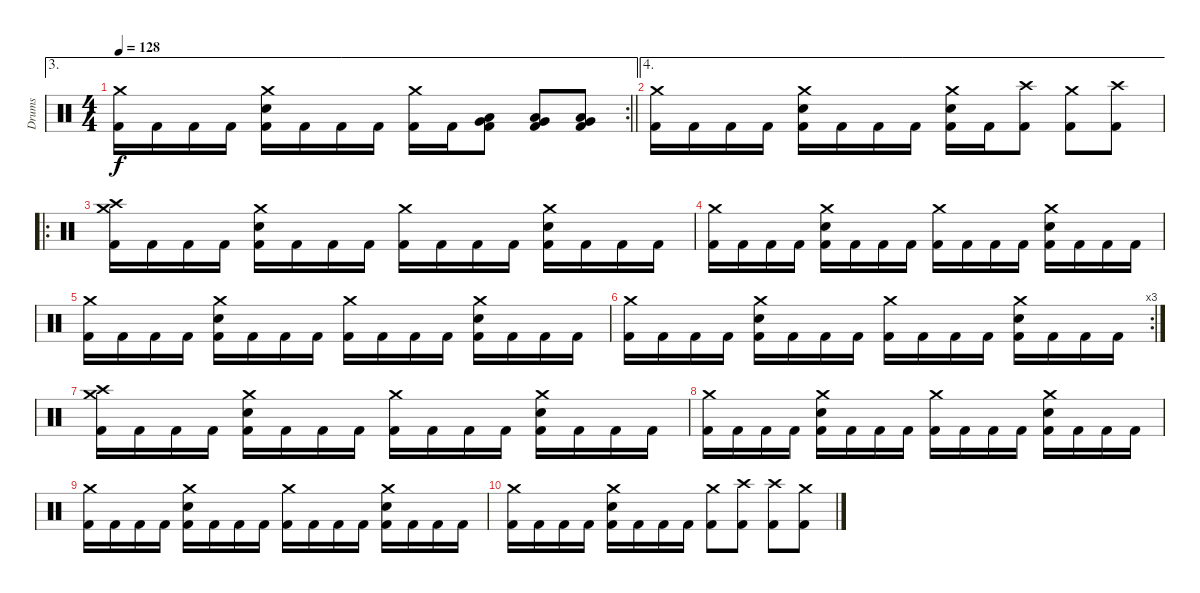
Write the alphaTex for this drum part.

\track ("Drums" "Drums") {instrument percussion}
\staff {score}
\articulation defaults
\ae 3
\rc 2
\ts (4 4)
\tempo 128
\clef neutral
\barLineRight lightlight
\ks c
("Crash medium (hit)" "Kick (hit) 2").16{dy f} "Kick (hit) 2".16 "Kick (hit) 2".16 "Kick (hit) 2".16 ("Crash medium (hit)" "Electric Snare (hit)" "Kick (hit) 2").16 "Kick (hit) 2".16 "Kick (hit) 2".16 "Kick (hit) 2".16 ("Crash medium (hit)" "Kick (hit) 2").16 "Kick (hit) 2".16 ("Low Floor Tom (hit)" "Very Low Tom (hit)" "Kick (hit) 2").8 ("Low Floor Tom (hit)" "Very Low Tom (hit)" "Kick (hit) 2").8 ("Low Floor Tom (hit)" "Very Low Tom (hit)" "Kick (hit) 2").8 |
\ae 4
("Crash medium (hit)" "Kick (hit) 2").16 "Kick (hit) 2".16 "Kick (hit) 2".16 "Kick (hit) 2".16 ("Crash medium (hit)" "Electric Snare (hit)" "Kick (hit) 2").16 "Kick (hit) 2".16 "Kick (hit) 2".16 "Kick (hit) 2".16 ("Crash medium (hit)" "Electric Snare (hit)" "Kick (hit) 2").16 "Kick (hit) 2".16 ("Crash high (hit)" "Kick (hit) 2").8 ("Crash medium (hit)" "Kick (hit) 2").8 ("Crash high (hit)" "Kick (hit) 2").8 |
\ro
("Crash medium (hit)" "Crash high (hit)" "Kick (hit) 2").16 "Kick (hit) 2".16 "Kick (hit) 2".16 "Kick (hit) 2".16 ("Crash medium (hit)" "Electric Snare (hit)" "Kick (hit) 2").16 "Kick (hit) 2".16 "Kick (hit) 2".16 "Kick (hit) 2".16 ("Crash medium (hit)" "Kick (hit) 2").16 "Kick (hit) 2".16 "Kick (hit) 2".16 "Kick (hit) 2".16 ("Crash medium (hit)" "Electric Snare (hit)" "Kick (hit) 2").16 "Kick (hit) 2".16 "Kick (hit) 2".16 "Kick (hit) 2".16 |
("Crash medium (hit)" "Kick (hit) 2").16 "Kick (hit) 2".16 "Kick (hit) 2".16 "Kick (hit) 2".16 ("Crash medium (hit)" "Electric Snare (hit)" "Kick (hit) 2").16 "Kick (hit) 2".16 "Kick (hit) 2".16 "Kick (hit) 2".16 ("Crash medium (hit)" "Kick (hit) 2").16 "Kick (hit) 2".16 "Kick (hit) 2".16 "Kick (hit) 2".16 ("Crash medium (hit)" "Electric Snare (hit)" "Kick (hit) 2").16 "Kick (hit) 2".16 "Kick (hit) 2".16 "Kick (hit) 2".16 |
("Crash medium (hit)" "Kick (hit) 2").16 "Kick (hit) 2".16 "Kick (hit) 2".16 "Kick (hit) 2".16 ("Crash medium (hit)" "Electric Snare (hit)" "Kick (hit) 2").16 "Kick (hit) 2".16 "Kick (hit) 2".16 "Kick (hit) 2".16 ("Crash medium (hit)" "Kick (hit) 2").16 "Kick (hit) 2".16 "Kick (hit) 2".16 "Kick (hit) 2".16 ("Crash medium (hit)" "Electric Snare (hit)" "Kick (hit) 2").16 "Kick (hit) 2".16 "Kick (hit) 2".16 "Kick (hit) 2".16 |
\rc 3
("Crash medium (hit)" "Kick (hit) 2").16 "Kick (hit) 2".16 "Kick (hit) 2".16 "Kick (hit) 2".16 ("Crash medium (hit)" "Electric Snare (hit)" "Kick (hit) 2").16 "Kick (hit) 2".16 "Kick (hit) 2".16 "Kick (hit) 2".16 ("Crash medium (hit)" "Kick (hit) 2").16 "Kick (hit) 2".16 "Kick (hit) 2".16 "Kick (hit) 2".16 ("Crash medium (hit)" "Electric Snare (hit)" "Kick (hit) 2").16 "Kick (hit) 2".16 "Kick (hit) 2".16 "Kick (hit) 2".16 |
("Crash medium (hit)" "Crash high (hit)" "Kick (hit) 2").16 "Kick (hit) 2".16 "Kick (hit) 2".16 "Kick (hit) 2".16 ("Crash medium (hit)" "Electric Snare (hit)" "Kick (hit) 2").16 "Kick (hit) 2".16 "Kick (hit) 2".16 "Kick (hit) 2".16 ("Crash medium (hit)" "Kick (hit) 2").16 "Kick (hit) 2".16 "Kick (hit) 2".16 "Kick (hit) 2".16 ("Crash medium (hit)" "Electric Snare (hit)" "Kick (hit) 2").16 "Kick (hit) 2".16 "Kick (hit) 2".16 "Kick (hit) 2".16 |
("Crash medium (hit)" "Kick (hit) 2").16 "Kick (hit) 2".16 "Kick (hit) 2".16 "Kick (hit) 2".16 ("Crash medium (hit)" "Electric Snare (hit)" "Kick (hit) 2").16 "Kick (hit) 2".16 "Kick (hit) 2".16 "Kick (hit) 2".16 ("Crash medium (hit)" "Kick (hit) 2").16 "Kick (hit) 2".16 "Kick (hit) 2".16 "Kick (hit) 2".16 ("Crash medium (hit)" "Electric Snare (hit)" "Kick (hit) 2").16 "Kick (hit) 2".16 "Kick (hit) 2".16 "Kick (hit) 2".16 |
("Crash medium (hit)" "Kick (hit) 2").16 "Kick (hit) 2".16 "Kick (hit) 2".16 "Kick (hit) 2".16 ("Crash medium (hit)" "Electric Snare (hit)" "Kick (hit) 2").16 "Kick (hit) 2".16 "Kick (hit) 2".16 "Kick (hit) 2".16 ("Crash medium (hit)" "Kick (hit) 2").16 "Kick (hit) 2".16 "Kick (hit) 2".16 "Kick (hit) 2".16 ("Crash medium (hit)" "Electric Snare (hit)" "Kick (hit) 2").16 "Kick (hit) 2".16 "Kick (hit) 2".16 "Kick (hit) 2".16 |
("Crash medium (hit)" "Kick (hit) 2").16 "Kick (hit) 2".16 "Kick (hit) 2".16 "Kick (hit) 2".16 ("Crash medium (hit)" "Electric Snare (hit)" "Kick (hit) 2").16 "Kick (hit) 2".16 "Kick (hit) 2".16 "Kick (hit) 2".16 ("Crash medium (hit)" "Kick (hit) 2").8 ("Crash high (hit)" "Kick (hit) 2").8 ("Crash high (hit)" "Kick (hit) 2").8 ("Crash medium (hit)" "Kick (hit) 2").8
